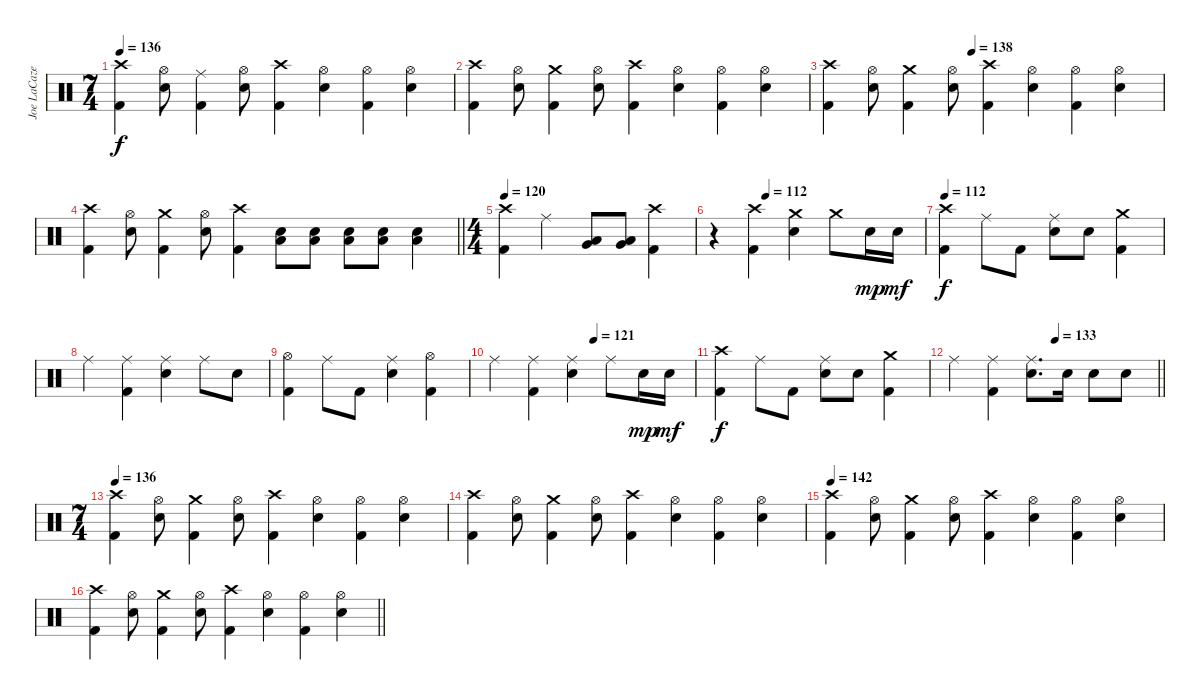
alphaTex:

\track ("Joe LaCaze" "Joe LaCaze") {instrument percussion}
\staff {score}
\articulation defaults
\ts (7 4)
\section ("" "")
\tempo 136
\clef neutral
\ks c
("Crash high (hit)" "Kick (hit) 2").4{dy f} ("Hi-Hat (open)" "Electric Snare (hit)").8 ("Ride (middle)" "Kick (hit) 2").4 ("Hi-Hat (open)" "Electric Snare (hit)").8 ("Crash high (hit)" "Kick (hit) 2").4 ("Hi-Hat (open)" "Electric Snare (hit)").4 ("Hi-Hat (open)" "Kick (hit) 2").4 ("Hi-Hat (open)" "Electric Snare (hit)").4 |
("Crash high (hit)" "Kick (hit) 2").4 ("Hi-Hat (open)" "Electric Snare (hit)").8 ("Crash medium (hit)" "Kick (hit) 2").4 ("Hi-Hat (open)" "Electric Snare (hit)").8 ("Crash high (hit)" "Kick (hit) 2").4 ("Hi-Hat (open)" "Electric Snare (hit)").4 ("Hi-Hat (open)" "Kick (hit) 2").4 ("Hi-Hat (open)" "Electric Snare (hit)").4 |
\tempo (138 0.42857142857142855)
("Crash high (hit)" "Kick (hit) 2").4 ("Hi-Hat (open)" "Electric Snare (hit)").8 ("Crash medium (hit)" "Kick (hit) 2").4 ("Hi-Hat (open)" "Electric Snare (hit)").8 ("Crash high (hit)" "Kick (hit) 2").4 ("Hi-Hat (open)" "Electric Snare (hit)").4 ("Hi-Hat (open)" "Kick (hit) 2").4 ("Hi-Hat (open)" "Electric Snare (hit)").4 |
\barLineRight lightlight
("Crash high (hit)" "Kick (hit) 2").4 ("Hi-Hat (open)" "Electric Snare (hit)").8 ("Crash medium (hit)" "Kick (hit) 2").4 ("Hi-Hat (open)" "Electric Snare (hit)").8 ("Crash high (hit)" "Kick (hit) 2").4 ("Electric Snare (hit)" "Low Floor Tom (hit)").8 ("Electric Snare (hit)" "Low Floor Tom (hit)").8 ("Electric Snare (hit)" "Low Floor Tom (hit)").8 ("Electric Snare (hit)" "Low Floor Tom (hit)").8 ("Electric Snare (hit)" "Low Floor Tom (hit)").4 |
\ts (4 4)
\section ("" "")
\tempo 120
("Crash high (hit)" "Kick (hit) 2").4 "Ride (middle)".4 ("Very Low Tom (hit)" "Low Floor Tom (hit)").8 ("Very Low Tom (hit)" "Low Floor Tom (hit)").8 ("Crash high (hit)" "Kick (hit) 2").4 |
\tempo (112 0.25)
r.4 ("Crash high (hit)" "Kick (hit) 2").4 ("Crash medium (hit)" "Electric Snare (hit)").4 "Crash medium (hit)".8 "Electric Snare (hit)".16{dy mp} "Electric Snare (hit)".16{dy mf} |
\tempo 112
("Crash high (hit)" "Kick (hit) 2").4{dy f} "Ride (middle)".8 "Kick (hit) 2".8 ("Ride (middle)" "Electric Snare (hit)").8 "Electric Snare (hit)".8 ("Crash medium (hit)" "Kick (hit) 2").4 |
"Ride (middle)".4 ("Ride (middle)" "Kick (hit) 2").4 ("Ride (middle)" "Electric Snare (hit)").4 "Ride (middle)".8 "Electric Snare (hit)".8 |
("Hi-Hat (open)" "Kick (hit) 2").4 "Ride (middle)".8 "Kick (hit) 2".8 ("Ride (middle)" "Electric Snare (hit)").4 ("Hi-Hat (open)" "Kick (hit) 2").4 |
\tempo (121 0.5)
"Ride (middle)".4 ("Ride (middle)" "Kick (hit) 2").4 ("Ride (middle)" "Electric Snare (hit)").4 "Ride (middle)".8 "Electric Snare (hit)".16{dy mp} "Electric Snare (hit)".16{dy mf} |
("Crash high (hit)" "Kick (hit) 2").4{dy f} "Ride (middle)".8 "Kick (hit) 2".8 ("Ride (middle)" "Electric Snare (hit)").8 "Electric Snare (hit)".8 ("Crash medium (hit)" "Kick (hit) 2").4 |
\tempo (133 0.5)
\barLineRight lightlight "Ride (middle)".4
("Ride (middle)" "Kick (hit) 2").4 ("Ride (middle)" "Electric Snare (hit)").8{d} "Electric Snare (hit)".16 "Electric Snare (hit)".8 "Electric Snare (hit)".8 |
\ts (7 4)
\section ("" "")
\tempo 136
("Crash high (hit)" "Kick (hit) 2").4 ("Hi-Hat (open)" "Electric Snare (hit)").8 ("Crash medium (hit)" "Kick (hit) 2").4 ("Hi-Hat (open)" "Electric Snare (hit)").8 ("Crash high (hit)" "Kick (hit) 2").4 ("Hi-Hat (open)" "Electric Snare (hit)").4 ("Hi-Hat (open)" "Kick (hit) 2").4 ("Hi-Hat (open)" "Electric Snare (hit)").4 |
("Crash high (hit)" "Kick (hit) 2").4 ("Hi-Hat (open)" "Electric Snare (hit)").8 ("Crash medium (hit)" "Kick (hit) 2").4 ("Hi-Hat (open)" "Electric Snare (hit)").8 ("Crash high (hit)" "Kick (hit) 2").4 ("Hi-Hat (open)" "Electric Snare (hit)").4 ("Hi-Hat (open)" "Kick (hit) 2").4 ("Hi-Hat (open)" "Electric Snare (hit)").4 |
\tempo 142
("Crash high (hit)" "Kick (hit) 2").4 ("Hi-Hat (open)" "Electric Snare (hit)").8 ("Crash medium (hit)" "Kick (hit) 2").4 ("Hi-Hat (open)" "Electric Snare (hit)").8 ("Crash high (hit)" "Kick (hit) 2").4 ("Hi-Hat (open)" "Electric Snare (hit)").4 ("Hi-Hat (open)" "Kick (hit) 2").4 ("Hi-Hat (open)" "Electric Snare (hit)").4 |
\barLineRight lightlight
("Crash high (hit)" "Kick (hit) 2").4 ("Hi-Hat (open)" "Electric Snare (hit)").8 ("Crash medium (hit)" "Kick (hit) 2").4 ("Hi-Hat (open)" "Electric Snare (hit)").8 ("Crash high (hit)" "Kick (hit) 2").4 ("Hi-Hat (open)" "Electric Snare (hit)").4 ("Hi-Hat (open)" "Kick (hit) 2").4 ("Hi-Hat (open)" "Electric Snare (hit)").4
